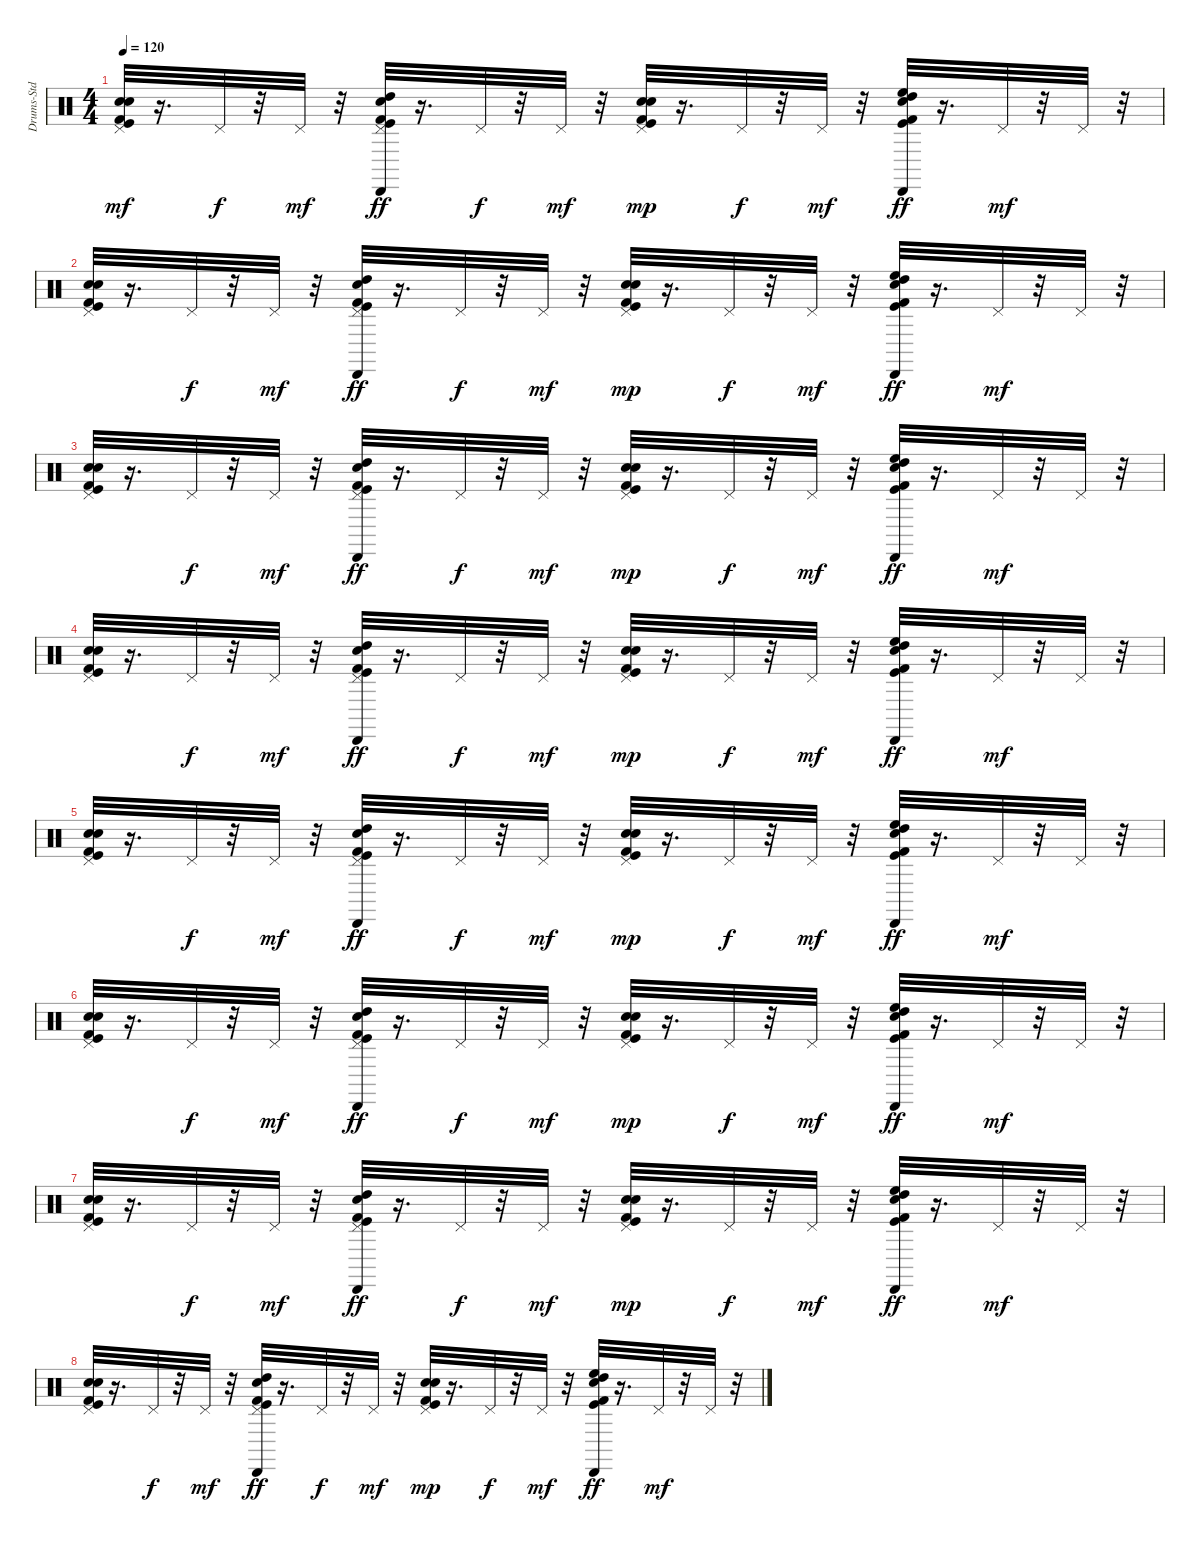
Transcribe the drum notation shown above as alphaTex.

\track ("Drums-Std" "Drums-Std") {instrument percussion}
\staff {score}
\articulation defaults
\ts (4 4)
\tempo 120
\clef neutral
\ks c
("Snare (hit) 2" "Electric Snare (hit)" "Pedal Hi-Hat (hit)" "Kick (hit) 2" "Kick (hit)").32{dy mf} r.16{d} "Pedal Hi-Hat (hit)".32{dy f volume 6} r.32 "Pedal Hi-Hat (hit)".32{dy mf} r.32 ("Kick (hit) 2" "Kick (hit)" "Snare (hit) 2" "High Tom (hit)" "Cabasa (hit)" "Pedal Hi-Hat (hit)").32{dy ff} r.16{d} "Pedal Hi-Hat (hit)".32{dy f volume 6} r.32 "Pedal Hi-Hat (hit)".32{dy mf} r.32 ("Electric Snare (hit)" "Snare (hit) 2" "Pedal Hi-Hat (hit)" "Kick (hit) 2" "Kick (hit)").32{dy mp volume 6} r.16{d} "Pedal Hi-Hat (hit)".32{dy f volume 6} r.32 "Pedal Hi-Hat (hit)".32{dy mf} r.32 ("Kick (hit) 2" "Kick (hit)" "Snare (hit) 2" "High Floor Tom (hit)" "High Tom (hit)" "Cabasa (hit)").32{dy ff volume 6} r.16{d} "Pedal Hi-Hat (hit)".32{dy mf} r.32 "Pedal Hi-Hat (hit)".32 r.32 |
("Snare (hit) 2" "Electric Snare (hit)" "Pedal Hi-Hat (hit)" "Kick (hit) 2" "Kick (hit)").32 r.16{d} "Pedal Hi-Hat (hit)".32{dy f volume 6} r.32 "Pedal Hi-Hat (hit)".32{dy mf} r.32 ("Kick (hit) 2" "Kick (hit)" "Snare (hit) 2" "High Tom (hit)" "Cabasa (hit)" "Pedal Hi-Hat (hit)").32{dy ff} r.16{d} "Pedal Hi-Hat (hit)".32{dy f volume 6} r.32 "Pedal Hi-Hat (hit)".32{dy mf} r.32 ("Electric Snare (hit)" "Snare (hit) 2" "Pedal Hi-Hat (hit)" "Kick (hit) 2" "Kick (hit)").32{dy mp volume 6} r.16{d} "Pedal Hi-Hat (hit)".32{dy f} r.32 "Pedal Hi-Hat (hit)".32{dy mf} r.32 ("Kick (hit) 2" "Kick (hit)" "Snare (hit) 2" "High Floor Tom (hit)" "High Tom (hit)" "Cabasa (hit)").32{dy ff} r.16{d} "Pedal Hi-Hat (hit)".32{dy mf volume 5} r.32 "Pedal Hi-Hat (hit)".32 r.32 |
("Snare (hit) 2" "Electric Snare (hit)" "Pedal Hi-Hat (hit)" "Kick (hit) 2" "Kick (hit)").32 r.16{d} "Pedal Hi-Hat (hit)".32{dy f volume 5} r.32 "Pedal Hi-Hat (hit)".32{dy mf} r.32 ("Kick (hit) 2" "Kick (hit)" "Snare (hit) 2" "High Tom (hit)" "Cabasa (hit)" "Pedal Hi-Hat (hit)").32{dy ff volume 5} r.16{d} "Pedal Hi-Hat (hit)".32{dy f} r.32 "Pedal Hi-Hat (hit)".32{dy mf volume 5} r.32 ("Electric Snare (hit)" "Snare (hit) 2" "Pedal Hi-Hat (hit)" "Kick (hit) 2" "Kick (hit)").32{dy mp} r.16{d} "Pedal Hi-Hat (hit)".32{dy f volume 5} r.32 "Pedal Hi-Hat (hit)".32{dy mf} r.32 ("Kick (hit) 2" "Kick (hit)" "Snare (hit) 2" "High Floor Tom (hit)" "High Tom (hit)" "Cabasa (hit)").32{dy ff volume 5} r.16{d} "Pedal Hi-Hat (hit)".32{dy mf volume 5} r.32 "Pedal Hi-Hat (hit)".32 r.32 |
("Snare (hit) 2" "Electric Snare (hit)" "Pedal Hi-Hat (hit)" "Kick (hit) 2" "Kick (hit)").32{volume 4} r.16{d} "Pedal Hi-Hat (hit)".32{dy f volume 4} r.32 "Pedal Hi-Hat (hit)".32{dy mf} r.32 ("Kick (hit) 2" "Kick (hit)" "Snare (hit) 2" "High Tom (hit)" "Cabasa (hit)" "Pedal Hi-Hat (hit)").32{dy ff} r.16{d} "Pedal Hi-Hat (hit)".32{dy f volume 4} r.32 "Pedal Hi-Hat (hit)".32{dy mf} r.32 ("Electric Snare (hit)" "Snare (hit) 2" "Pedal Hi-Hat (hit)" "Kick (hit) 2" "Kick (hit)").32{dy mp volume 4} r.16{d} "Pedal Hi-Hat (hit)".32{dy f} r.32 "Pedal Hi-Hat (hit)".32{dy mf} r.32 ("Kick (hit) 2" "Kick (hit)" "Snare (hit) 2" "High Floor Tom (hit)" "High Tom (hit)" "Cabasa (hit)").32{dy ff} r.16{d} "Pedal Hi-Hat (hit)".32{dy mf volume 4} r.32 "Pedal Hi-Hat (hit)".32 r.32 |
("Snare (hit) 2" "Electric Snare (hit)" "Pedal Hi-Hat (hit)" "Kick (hit) 2" "Kick (hit)").32{volume 4} r.16{d} "Pedal Hi-Hat (hit)".32{dy f} r.32 "Pedal Hi-Hat (hit)".32{dy mf volume 3} r.32 ("Kick (hit) 2" "Kick (hit)" "Snare (hit) 2" "High Tom (hit)" "Cabasa (hit)" "Pedal Hi-Hat (hit)").32{dy ff volume 3} r.16{d} "Pedal Hi-Hat (hit)".32{dy f} r.32 "Pedal Hi-Hat (hit)".32{dy mf volume 3} r.32 ("Electric Snare (hit)" "Snare (hit) 2" "Pedal Hi-Hat (hit)" "Kick (hit) 2" "Kick (hit)").32{dy mp} r.16{d} "Pedal Hi-Hat (hit)".32{dy f volume 3} r.32 "Pedal Hi-Hat (hit)".32{dy mf} r.32 ("Kick (hit) 2" "Kick (hit)" "Snare (hit) 2" "High Floor Tom (hit)" "High Tom (hit)" "Cabasa (hit)").32{dy ff} r.16{d} "Pedal Hi-Hat (hit)".32{dy mf volume 3} r.32 "Pedal Hi-Hat (hit)".32 r.32 |
("Snare (hit) 2" "Electric Snare (hit)" "Pedal Hi-Hat (hit)" "Kick (hit) 2" "Kick (hit)").32{volume 2} r.16{d} "Pedal Hi-Hat (hit)".32{dy f volume 2} r.32 "Pedal Hi-Hat (hit)".32{dy mf} r.32 ("Kick (hit) 2" "Kick (hit)" "Snare (hit) 2" "High Tom (hit)" "Cabasa (hit)" "Pedal Hi-Hat (hit)").32{dy ff} r.16{d} "Pedal Hi-Hat (hit)".32{dy f} r.32 "Pedal Hi-Hat (hit)".32{dy mf volume 2} r.32 ("Electric Snare (hit)" "Snare (hit) 2" "Pedal Hi-Hat (hit)" "Kick (hit) 2" "Kick (hit)").32{dy mp} r.16{d} "Pedal Hi-Hat (hit)".32{dy f volume 2} r.32 "Pedal Hi-Hat (hit)".32{dy mf volume 2} r.32 ("Kick (hit) 2" "Kick (hit)" "Snare (hit) 2" "High Floor Tom (hit)" "High Tom (hit)" "Cabasa (hit)").32{dy ff} r.16{d} "Pedal Hi-Hat (hit)".32{dy mf volume 2} r.32 "Pedal Hi-Hat (hit)".32{volume 2} r.32 |
("Snare (hit) 2" "Electric Snare (hit)" "Pedal Hi-Hat (hit)" "Kick (hit) 2" "Kick (hit)").32 r.16{d} "Pedal Hi-Hat (hit)".32{dy f} r.32 "Pedal Hi-Hat (hit)".32{dy mf} r.32 ("Kick (hit) 2" "Kick (hit)" "Snare (hit) 2" "High Tom (hit)" "Cabasa (hit)" "Pedal Hi-Hat (hit)").32{dy ff} r.16{d} "Pedal Hi-Hat (hit)".32{dy f volume 1} r.32 "Pedal Hi-Hat (hit)".32{dy mf} r.32 ("Electric Snare (hit)" "Snare (hit) 2" "Pedal Hi-Hat (hit)" "Kick (hit) 2" "Kick (hit)").32{dy mp} r.16{d} "Pedal Hi-Hat (hit)".32{dy f} r.32 "Pedal Hi-Hat (hit)".32{dy mf volume 1} r.32 ("Kick (hit) 2" "Kick (hit)" "Snare (hit) 2" "High Floor Tom (hit)" "High Tom (hit)" "Cabasa (hit)").32{dy ff} r.16{d} "Pedal Hi-Hat (hit)".32{dy mf volume 1} r.32 "Pedal Hi-Hat (hit)".32 r.32 |
("Snare (hit) 2" "Electric Snare (hit)" "Pedal Hi-Hat (hit)" "Kick (hit) 2" "Kick (hit)").32{volume 1} r.16{d} "Pedal Hi-Hat (hit)".32{dy f} r.32 "Pedal Hi-Hat (hit)".32{dy mf volume 1} r.32 ("Kick (hit) 2" "Kick (hit)" "Snare (hit) 2" "High Tom (hit)" "Cabasa (hit)" "Pedal Hi-Hat (hit)").32{dy ff} r.16{d} "Pedal Hi-Hat (hit)".32{dy f volume 0} r.32 "Pedal Hi-Hat (hit)".32{dy mf volume 0} r.32 ("Electric Snare (hit)" "Snare (hit) 2" "Pedal Hi-Hat (hit)" "Kick (hit) 2" "Kick (hit)").32{dy mp} r.16{d} "Pedal Hi-Hat (hit)".32{dy f volume 0} r.32 "Pedal Hi-Hat (hit)".32{dy mf} r.32 ("Kick (hit) 2" "Kick (hit)" "Snare (hit) 2" "High Floor Tom (hit)" "High Tom (hit)" "Cabasa (hit)").32{dy ff} r.16{d} "Pedal Hi-Hat (hit)".32{dy mf} r.32 "Pedal Hi-Hat (hit)".32 r.32
